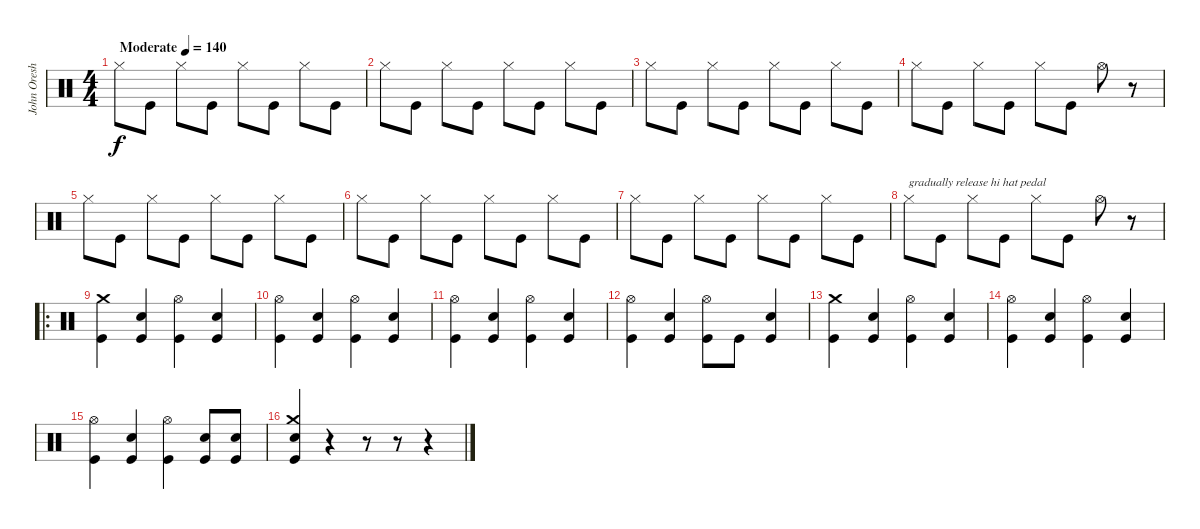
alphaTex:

\track ("John Oreshnick (drums)" "John Oresh") {instrument percussion}
\staff {score}
\articulation defaults
\ts (4 4)
\tempo (140 "Moderate")
\clef neutral
\ks c "Hi-Hat (closed)".8{dy f} "Kick (hit)".8 "Hi-Hat (closed)".8 "Kick (hit)".8 "Hi-Hat (closed)".8 "Kick (hit)".8 "Hi-Hat (closed)".8 "Kick (hit)".8
|
"Hi-Hat (closed)".8 "Kick (hit)".8 "Hi-Hat (closed)".8 "Kick (hit)".8 "Hi-Hat (closed)".8 "Kick (hit)".8 "Hi-Hat (closed)".8 "Kick (hit)".8 |
"Hi-Hat (closed)".8 "Kick (hit)".8 "Hi-Hat (closed)".8 "Kick (hit)".8 "Hi-Hat (closed)".8 "Kick (hit)".8 "Hi-Hat (closed)".8 "Kick (hit)".8 |
"Hi-Hat (closed)".8 "Kick (hit)".8 "Hi-Hat (closed)".8 "Kick (hit)".8 "Hi-Hat (closed)".8 "Kick (hit)".8 "Hi-Hat (open)".8 r.8 |
"Hi-Hat (closed)".8 "Kick (hit)".8 "Hi-Hat (closed)".8 "Kick (hit)".8 "Hi-Hat (closed)".8 "Kick (hit)".8 "Hi-Hat (closed)".8 "Kick (hit)".8 |
"Hi-Hat (closed)".8 "Kick (hit)".8 "Hi-Hat (closed)".8 "Kick (hit)".8 "Hi-Hat (closed)".8 "Kick (hit)".8 "Hi-Hat (closed)".8 "Kick (hit)".8 |
"Hi-Hat (closed)".8 "Kick (hit)".8 "Hi-Hat (closed)".8 "Kick (hit)".8 "Hi-Hat (closed)".8 "Kick (hit)".8 "Hi-Hat (closed)".8 "Kick (hit)".8 |
"Hi-Hat (closed)".8{txt "gradually release hi hat pedal"} "Kick (hit)".8 "Hi-Hat (closed)".8 "Kick (hit)".8 "Hi-Hat (closed)".8 "Kick (hit)".8 "Hi-Hat (open)".8 r.8 |
\ro
("Crash medium (hit)" "Kick (hit)").4 ("Snare (hit) 2" "Kick (hit)").4 ("Hi-Hat (open)" "Kick (hit)").4 ("Snare (hit) 2" "Kick (hit)").4 |
("Hi-Hat (open)" "Kick (hit)").4 ("Snare (hit) 2" "Kick (hit)").4 ("Hi-Hat (open)" "Kick (hit)").4 ("Snare (hit) 2" "Kick (hit)").4 |
("Hi-Hat (open)" "Kick (hit)").4 ("Snare (hit) 2" "Kick (hit)").4 ("Hi-Hat (open)" "Kick (hit)").4 ("Snare (hit) 2" "Kick (hit)").4 |
("Hi-Hat (open)" "Kick (hit)").4 ("Snare (hit) 2" "Kick (hit)").4 ("Hi-Hat (open)" "Kick (hit)").8 "Kick (hit)".8 ("Snare (hit) 2" "Kick (hit)").4 |
("Crash medium (hit)" "Kick (hit)").4 ("Snare (hit) 2" "Kick (hit)").4 ("Hi-Hat (open)" "Kick (hit)").4 ("Snare (hit) 2" "Kick (hit)").4 |
("Hi-Hat (open)" "Kick (hit)").4 ("Snare (hit) 2" "Kick (hit)").4 ("Hi-Hat (open)" "Kick (hit)").4 ("Snare (hit) 2" "Kick (hit)").4 |
("Hi-Hat (open)" "Kick (hit)").4 ("Snare (hit) 2" "Kick (hit)").4 ("Hi-Hat (open)" "Kick (hit)").4 ("Snare (hit) 2" "Kick (hit)").8 ("Snare (hit) 2" "Kick (hit)").8 |
("Crash medium (hit)" "Snare (hit) 2" "Kick (hit)").4 r.4 r.8 r.8 r.4
